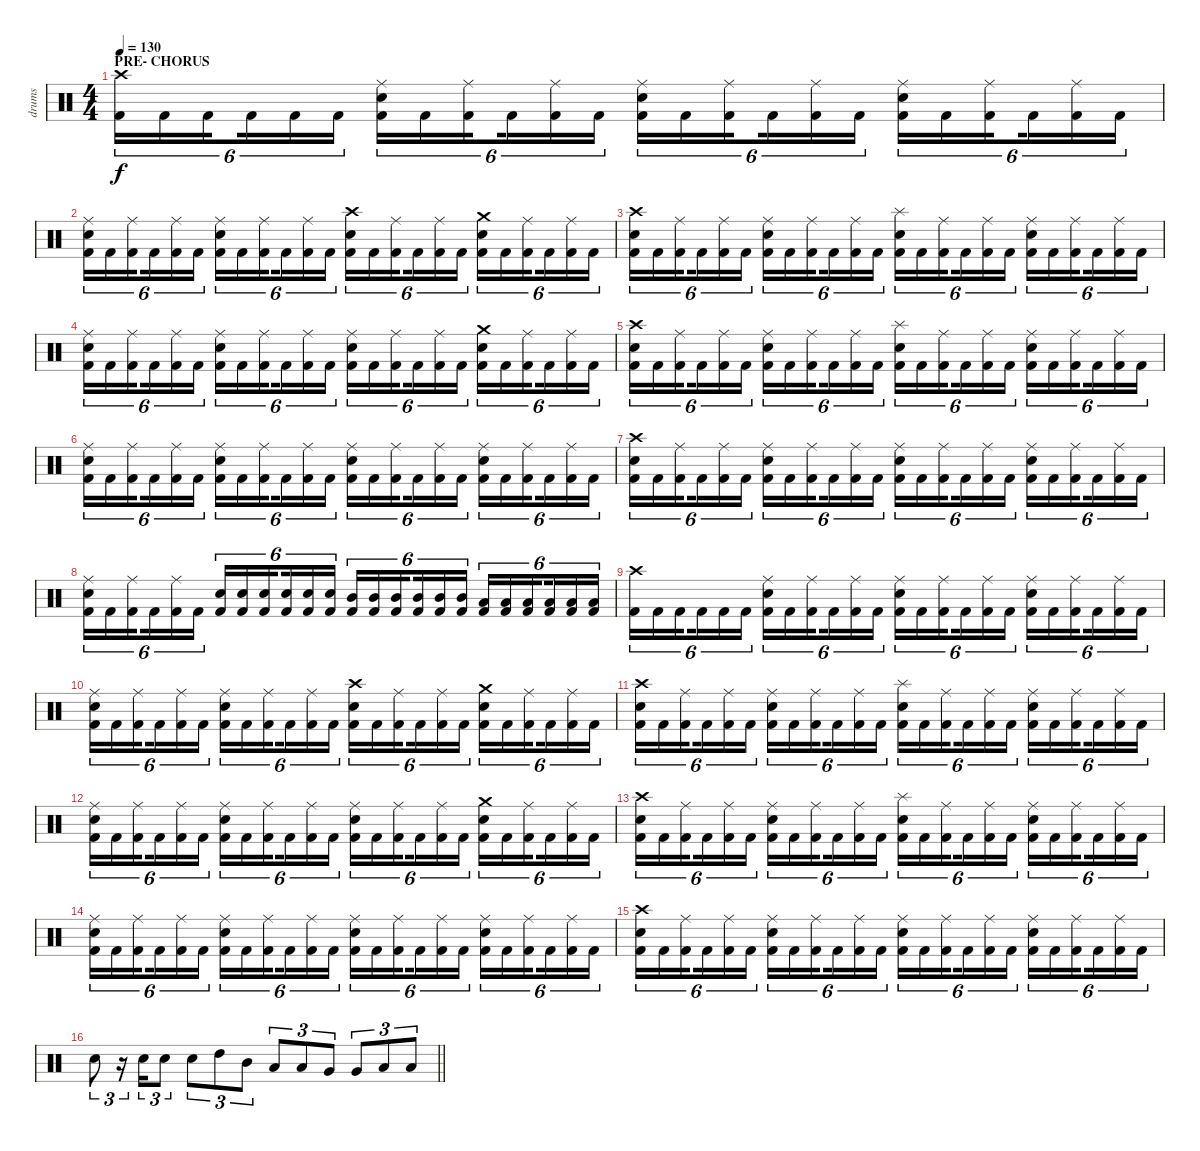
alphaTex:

\track ("drums" "drums") {instrument percussion}
\staff {score}
\articulation defaults
\ts (4 4)
\section ("" "PRE- CHORUS")
\tempo 130
\clef neutral
\ks c
("Crash high (hit)" "Kick (hit) 2").16{tu (6 4) dy f} "Kick (hit) 2".16{tu (6 4)} "Kick (hit) 2".16{tu (6 4) beam splitsecondary} "Kick (hit) 2".16{tu (6 4)} "Kick (hit) 2".16{tu (6 4)} "Kick (hit) 2".16{tu (6 4)} ("Ride (middle)" "Electric Snare (hit)" "Kick (hit) 2").16{tu (6 4)} "Kick (hit) 2".16{tu (6 4)} ("Ride (middle)" "Kick (hit) 2").16{tu (6 4) beam splitsecondary} "Kick (hit) 2".16{tu (6 4)} ("Ride (middle)" "Kick (hit) 2").16{tu (6 4)} "Kick (hit) 2".16{tu (6 4)} ("Ride (middle)" "Electric Snare (hit)" "Kick (hit) 2").16{tu (6 4)} "Kick (hit) 2".16{tu (6 4)} ("Ride (middle)" "Kick (hit) 2").16{tu (6 4) beam splitsecondary} "Kick (hit) 2".16{tu (6 4)} ("Ride (middle)" "Kick (hit) 2").16{tu (6 4)} "Kick (hit) 2".16{tu (6 4)} ("Ride (middle)" "Electric Snare (hit)" "Kick (hit) 2").16{tu (6 4)} "Kick (hit) 2".16{tu (6 4)} ("Ride (middle)" "Kick (hit) 2").16{tu (6 4) beam splitsecondary} "Kick (hit) 2".16{tu (6 4)} ("Ride (middle)" "Kick (hit) 2").16{tu (6 4)} "Kick (hit) 2".16{tu (6 4)} |
("Ride (middle)" "Electric Snare (hit)" "Kick (hit) 2").16{tu (6 4)} "Kick (hit) 2".16{tu (6 4)} ("Ride (middle)" "Kick (hit) 2").16{tu (6 4) beam splitsecondary} "Kick (hit) 2".16{tu (6 4)} ("Ride (middle)" "Kick (hit) 2").16{tu (6 4)} "Kick (hit) 2".16{tu (6 4)} ("Ride (middle)" "Electric Snare (hit)" "Kick (hit) 2").16{tu (6 4)} "Kick (hit) 2".16{tu (6 4)} ("Ride (middle)" "Kick (hit) 2").16{tu (6 4) beam splitsecondary} "Kick (hit) 2".16{tu (6 4)} ("Ride (middle)" "Kick (hit) 2").16{tu (6 4)} "Kick (hit) 2".16{tu (6 4)} ("Crash high (hit)" "Electric Snare (hit)" "Kick (hit) 2").16{tu (6 4)} "Kick (hit) 2".16{tu (6 4)} ("Ride (middle)" "Kick (hit) 2").16{tu (6 4) beam splitsecondary} "Kick (hit) 2".16{tu (6 4)} ("Ride (middle)" "Kick (hit) 2").16{tu (6 4)} "Kick (hit) 2".16{tu (6 4)} ("Crash medium (hit)" "Electric Snare (hit)" "Kick (hit) 2").16{tu (6 4)} "Kick (hit) 2".16{tu (6 4)} ("Ride (middle)" "Kick (hit) 2").16{tu (6 4) beam splitsecondary} "Kick (hit) 2".16{tu (6 4)} ("Ride (middle)" "Kick (hit) 2").16{tu (6 4)} "Kick (hit) 2".16{tu (6 4)} |
("Crash high (hit)" "Electric Snare (hit)" "Kick (hit) 2").16{tu (6 4)} "Kick (hit) 2".16{tu (6 4)} ("Ride (middle)" "Kick (hit) 2").16{tu (6 4) beam splitsecondary} "Kick (hit) 2".16{tu (6 4)} ("Ride (middle)" "Kick (hit) 2").16{tu (6 4)} "Kick (hit) 2".16{tu (6 4)} ("Ride (middle)" "Electric Snare (hit)" "Kick (hit) 2").16{tu (6 4)} "Kick (hit) 2".16{tu (6 4)} ("Ride (middle)" "Kick (hit) 2").16{tu (6 4) beam splitsecondary} "Kick (hit) 2".16{tu (6 4)} ("Ride (middle)" "Kick (hit) 2").16{tu (6 4)} "Kick (hit) 2".16{tu (6 4)} ("Splash (hit)" "Electric Snare (hit)" "Kick (hit) 2").16{tu (6 4)} "Kick (hit) 2".16{tu (6 4)} ("Ride (middle)" "Kick (hit) 2").16{tu (6 4) beam splitsecondary} "Kick (hit) 2".16{tu (6 4)} ("Ride (middle)" "Kick (hit) 2").16{tu (6 4)} "Kick (hit) 2".16{tu (6 4)} ("Ride (middle)" "Electric Snare (hit)" "Kick (hit) 2").16{tu (6 4)} "Kick (hit) 2".16{tu (6 4)} ("Ride (middle)" "Kick (hit) 2").16{tu (6 4) beam splitsecondary} "Kick (hit) 2".16{tu (6 4)} ("Ride (middle)" "Kick (hit) 2").16{tu (6 4)} "Kick (hit) 2".16{tu (6 4)} |
("Ride (middle)" "Electric Snare (hit)" "Kick (hit) 2").16{tu (6 4)} "Kick (hit) 2".16{tu (6 4)} ("Ride (middle)" "Kick (hit) 2").16{tu (6 4) beam splitsecondary} "Kick (hit) 2".16{tu (6 4)} ("Ride (middle)" "Kick (hit) 2").16{tu (6 4)} "Kick (hit) 2".16{tu (6 4)} ("Ride (middle)" "Electric Snare (hit)" "Kick (hit) 2").16{tu (6 4)} "Kick (hit) 2".16{tu (6 4)} ("Ride (middle)" "Kick (hit) 2").16{tu (6 4) beam splitsecondary} "Kick (hit) 2".16{tu (6 4)} ("Ride (middle)" "Kick (hit) 2").16{tu (6 4)} "Kick (hit) 2".16{tu (6 4)} ("Ride (middle)" "Electric Snare (hit)" "Kick (hit) 2").16{tu (6 4)} "Kick (hit) 2".16{tu (6 4)} ("Ride (middle)" "Kick (hit) 2").16{tu (6 4) beam splitsecondary} "Kick (hit) 2".16{tu (6 4)} ("Ride (middle)" "Kick (hit) 2").16{tu (6 4)} "Kick (hit) 2".16{tu (6 4)} ("Crash medium (hit)" "Electric Snare (hit)" "Kick (hit) 2").16{tu (6 4)} "Kick (hit) 2".16{tu (6 4)} ("Ride (middle)" "Kick (hit) 2").16{tu (6 4) beam splitsecondary} "Kick (hit) 2".16{tu (6 4)} ("Ride (middle)" "Kick (hit) 2").16{tu (6 4)} "Kick (hit) 2".16{tu (6 4)} |
("Crash high (hit)" "Electric Snare (hit)" "Kick (hit) 2").16{tu (6 4)} "Kick (hit) 2".16{tu (6 4)} ("Ride (middle)" "Kick (hit) 2").16{tu (6 4) beam splitsecondary} "Kick (hit) 2".16{tu (6 4)} ("Ride (middle)" "Kick (hit) 2").16{tu (6 4)} "Kick (hit) 2".16{tu (6 4)} ("Ride (middle)" "Electric Snare (hit)" "Kick (hit) 2").16{tu (6 4)} "Kick (hit) 2".16{tu (6 4)} ("Ride (middle)" "Kick (hit) 2").16{tu (6 4) beam splitsecondary} "Kick (hit) 2".16{tu (6 4)} ("Ride (middle)" "Kick (hit) 2").16{tu (6 4)} "Kick (hit) 2".16{tu (6 4)} ("Splash (hit)" "Electric Snare (hit)" "Kick (hit) 2").16{tu (6 4)} "Kick (hit) 2".16{tu (6 4)} ("Ride (middle)" "Kick (hit) 2").16{tu (6 4) beam splitsecondary} "Kick (hit) 2".16{tu (6 4)} ("Ride (middle)" "Kick (hit) 2").16{tu (6 4)} "Kick (hit) 2".16{tu (6 4)} ("Ride (middle)" "Electric Snare (hit)" "Kick (hit) 2").16{tu (6 4)} "Kick (hit) 2".16{tu (6 4)} ("Ride (middle)" "Kick (hit) 2").16{tu (6 4) beam splitsecondary} "Kick (hit) 2".16{tu (6 4)} ("Ride (middle)" "Kick (hit) 2").16{tu (6 4)} "Kick (hit) 2".16{tu (6 4)} |
("Ride (middle)" "Electric Snare (hit)" "Kick (hit) 2").16{tu (6 4)} "Kick (hit) 2".16{tu (6 4)} ("Ride (middle)" "Kick (hit) 2").16{tu (6 4) beam splitsecondary} "Kick (hit) 2".16{tu (6 4)} ("Ride (middle)" "Kick (hit) 2").16{tu (6 4)} "Kick (hit) 2".16{tu (6 4)} ("Ride (middle)" "Electric Snare (hit)" "Kick (hit) 2").16{tu (6 4)} "Kick (hit) 2".16{tu (6 4)} ("Ride (middle)" "Kick (hit) 2").16{tu (6 4) beam splitsecondary} "Kick (hit) 2".16{tu (6 4)} ("Ride (middle)" "Kick (hit) 2").16{tu (6 4)} "Kick (hit) 2".16{tu (6 4)} ("Ride (middle)" "Electric Snare (hit)" "Kick (hit) 2").16{tu (6 4)} "Kick (hit) 2".16{tu (6 4)} ("Ride (middle)" "Kick (hit) 2").16{tu (6 4) beam splitsecondary} "Kick (hit) 2".16{tu (6 4)} ("Ride (middle)" "Kick (hit) 2").16{tu (6 4)} "Kick (hit) 2".16{tu (6 4)} ("Ride (middle)" "Electric Snare (hit)" "Kick (hit) 2").16{tu (6 4)} "Kick (hit) 2".16{tu (6 4)} ("Ride (middle)" "Kick (hit) 2").16{tu (6 4) beam splitsecondary} "Kick (hit) 2".16{tu (6 4)} ("Ride (middle)" "Kick (hit) 2").16{tu (6 4)} "Kick (hit) 2".16{tu (6 4)} |
("Crash high (hit)" "Electric Snare (hit)" "Kick (hit) 2").16{tu (6 4)} "Kick (hit) 2".16{tu (6 4)} ("Ride (middle)" "Kick (hit) 2").16{tu (6 4) beam splitsecondary} "Kick (hit) 2".16{tu (6 4)} ("Ride (middle)" "Kick (hit) 2").16{tu (6 4)} "Kick (hit) 2".16{tu (6 4)} ("Ride (middle)" "Electric Snare (hit)" "Kick (hit) 2").16{tu (6 4)} "Kick (hit) 2".16{tu (6 4)} ("Ride (middle)" "Kick (hit) 2").16{tu (6 4) beam splitsecondary} "Kick (hit) 2".16{tu (6 4)} ("Ride (middle)" "Kick (hit) 2").16{tu (6 4)} "Kick (hit) 2".16{tu (6 4)} ("Ride (middle)" "Electric Snare (hit)" "Kick (hit) 2").16{tu (6 4)} "Kick (hit) 2".16{tu (6 4)} ("Ride (middle)" "Kick (hit) 2").16{tu (6 4) beam splitsecondary} "Kick (hit) 2".16{tu (6 4)} ("Ride (middle)" "Kick (hit) 2").16{tu (6 4)} "Kick (hit) 2".16{tu (6 4)} ("Ride (middle)" "Electric Snare (hit)" "Kick (hit) 2").16{tu (6 4)} "Kick (hit) 2".16{tu (6 4)} ("Ride (middle)" "Kick (hit) 2").16{tu (6 4) beam splitsecondary} "Kick (hit) 2".16{tu (6 4)} ("Ride (middle)" "Kick (hit) 2").16{tu (6 4)} "Kick (hit) 2".16{tu (6 4)} |
("Ride (middle)" "Electric Snare (hit)" "Kick (hit) 2").16{tu (6 4)} "Kick (hit) 2".16{tu (6 4)} ("Ride (middle)" "Kick (hit) 2").16{tu (6 4) beam splitsecondary} "Kick (hit) 2".16{tu (6 4)} ("Ride (middle)" "Kick (hit) 2").16{tu (6 4)} "Kick (hit) 2".16{tu (6 4)} ("Electric Snare (hit)" "Kick (hit) 2").16{tu (6 4)} ("Electric Snare (hit)" "Kick (hit) 2").16{tu (6 4)} ("Electric Snare (hit)" "Kick (hit) 2").16{tu (6 4) beam splitsecondary} ("Electric Snare (hit)" "Kick (hit) 2").16{tu (6 4)} ("Electric Snare (hit)" "Kick (hit) 2").16{tu (6 4)} ("Electric Snare (hit)" "Kick (hit) 2").16{tu (6 4)} ("Mid Tom (hit)" "Kick (hit) 2").16{tu (6 4)} ("Mid Tom (hit)" "Kick (hit) 2").16{tu (6 4)} ("Mid Tom (hit)" "Kick (hit) 2").16{tu (6 4) beam splitsecondary} ("Mid Tom (hit)" "Kick (hit) 2").16{tu (6 4)} ("Mid Tom (hit)" "Kick (hit) 2").16{tu (6 4)} ("Mid Tom (hit)" "Kick (hit) 2").16{tu (6 4)} ("Low Tom (hit)" "Kick (hit) 2").16{tu (6 4)} ("Low Tom (hit)" "Kick (hit) 2").16{tu (6 4)} ("Low Tom (hit)" "Kick (hit) 2").16{tu (6 4) beam splitsecondary} ("Low Tom (hit)" "Kick (hit) 2").16{tu (6 4)} ("Low Tom (hit)" "Kick (hit) 2").16{tu (6 4)} ("Low Tom (hit)" "Kick (hit) 2").16{tu (6 4)} |
("Crash high (hit)" "Kick (hit) 2").16{tu (6 4)} "Kick (hit) 2".16{tu (6 4)} "Kick (hit) 2".16{tu (6 4) beam splitsecondary} "Kick (hit) 2".16{tu (6 4)} "Kick (hit) 2".16{tu (6 4)} "Kick (hit) 2".16{tu (6 4)} ("Ride (middle)" "Electric Snare (hit)" "Kick (hit) 2").16{tu (6 4)} "Kick (hit) 2".16{tu (6 4)} ("Ride (middle)" "Kick (hit) 2").16{tu (6 4) beam splitsecondary} "Kick (hit) 2".16{tu (6 4)} ("Ride (middle)" "Kick (hit) 2").16{tu (6 4)} "Kick (hit) 2".16{tu (6 4)} ("Ride (middle)" "Electric Snare (hit)" "Kick (hit) 2").16{tu (6 4)} "Kick (hit) 2".16{tu (6 4)} ("Ride (middle)" "Kick (hit) 2").16{tu (6 4) beam splitsecondary} "Kick (hit) 2".16{tu (6 4)} ("Ride (middle)" "Kick (hit) 2").16{tu (6 4)} "Kick (hit) 2".16{tu (6 4)} ("Ride (middle)" "Electric Snare (hit)" "Kick (hit) 2").16{tu (6 4)} "Kick (hit) 2".16{tu (6 4)} ("Ride (middle)" "Kick (hit) 2").16{tu (6 4) beam splitsecondary} "Kick (hit) 2".16{tu (6 4)} ("Ride (middle)" "Kick (hit) 2").16{tu (6 4)} "Kick (hit) 2".16{tu (6 4)} |
("Ride (middle)" "Electric Snare (hit)" "Kick (hit) 2").16{tu (6 4)} "Kick (hit) 2".16{tu (6 4)} ("Ride (middle)" "Kick (hit) 2").16{tu (6 4) beam splitsecondary} "Kick (hit) 2".16{tu (6 4)} ("Ride (middle)" "Kick (hit) 2").16{tu (6 4)} "Kick (hit) 2".16{tu (6 4)} ("Ride (middle)" "Electric Snare (hit)" "Kick (hit) 2").16{tu (6 4)} "Kick (hit) 2".16{tu (6 4)} ("Ride (middle)" "Kick (hit) 2").16{tu (6 4) beam splitsecondary} "Kick (hit) 2".16{tu (6 4)} ("Ride (middle)" "Kick (hit) 2").16{tu (6 4)} "Kick (hit) 2".16{tu (6 4)} ("Crash high (hit)" "Electric Snare (hit)" "Kick (hit) 2").16{tu (6 4)} "Kick (hit) 2".16{tu (6 4)} ("Ride (middle)" "Kick (hit) 2").16{tu (6 4) beam splitsecondary} "Kick (hit) 2".16{tu (6 4)} ("Ride (middle)" "Kick (hit) 2").16{tu (6 4)} "Kick (hit) 2".16{tu (6 4)} ("Crash medium (hit)" "Electric Snare (hit)" "Kick (hit) 2").16{tu (6 4)} "Kick (hit) 2".16{tu (6 4)} ("Ride (middle)" "Kick (hit) 2").16{tu (6 4) beam splitsecondary} "Kick (hit) 2".16{tu (6 4)} ("Ride (middle)" "Kick (hit) 2").16{tu (6 4)} "Kick (hit) 2".16{tu (6 4)} |
("Crash high (hit)" "Electric Snare (hit)" "Kick (hit) 2").16{tu (6 4)} "Kick (hit) 2".16{tu (6 4)} ("Ride (middle)" "Kick (hit) 2").16{tu (6 4) beam splitsecondary} "Kick (hit) 2".16{tu (6 4)} ("Ride (middle)" "Kick (hit) 2").16{tu (6 4)} "Kick (hit) 2".16{tu (6 4)} ("Ride (middle)" "Electric Snare (hit)" "Kick (hit) 2").16{tu (6 4)} "Kick (hit) 2".16{tu (6 4)} ("Ride (middle)" "Kick (hit) 2").16{tu (6 4) beam splitsecondary} "Kick (hit) 2".16{tu (6 4)} ("Ride (middle)" "Kick (hit) 2").16{tu (6 4)} "Kick (hit) 2".16{tu (6 4)} ("Splash (hit)" "Electric Snare (hit)" "Kick (hit) 2").16{tu (6 4)} "Kick (hit) 2".16{tu (6 4)} ("Ride (middle)" "Kick (hit) 2").16{tu (6 4) beam splitsecondary} "Kick (hit) 2".16{tu (6 4)} ("Ride (middle)" "Kick (hit) 2").16{tu (6 4)} "Kick (hit) 2".16{tu (6 4)} ("Ride (middle)" "Electric Snare (hit)" "Kick (hit) 2").16{tu (6 4)} "Kick (hit) 2".16{tu (6 4)} ("Ride (middle)" "Kick (hit) 2").16{tu (6 4) beam splitsecondary} "Kick (hit) 2".16{tu (6 4)} ("Ride (middle)" "Kick (hit) 2").16{tu (6 4)} "Kick (hit) 2".16{tu (6 4)} |
("Ride (middle)" "Electric Snare (hit)" "Kick (hit) 2").16{tu (6 4)} "Kick (hit) 2".16{tu (6 4)} ("Ride (middle)" "Kick (hit) 2").16{tu (6 4) beam splitsecondary} "Kick (hit) 2".16{tu (6 4)} ("Ride (middle)" "Kick (hit) 2").16{tu (6 4)} "Kick (hit) 2".16{tu (6 4)} ("Ride (middle)" "Electric Snare (hit)" "Kick (hit) 2").16{tu (6 4)} "Kick (hit) 2".16{tu (6 4)} ("Ride (middle)" "Kick (hit) 2").16{tu (6 4) beam splitsecondary} "Kick (hit) 2".16{tu (6 4)} ("Ride (middle)" "Kick (hit) 2").16{tu (6 4)} "Kick (hit) 2".16{tu (6 4)} ("Ride (middle)" "Electric Snare (hit)" "Kick (hit) 2").16{tu (6 4)} "Kick (hit) 2".16{tu (6 4)} ("Ride (middle)" "Kick (hit) 2").16{tu (6 4) beam splitsecondary} "Kick (hit) 2".16{tu (6 4)} ("Ride (middle)" "Kick (hit) 2").16{tu (6 4)} "Kick (hit) 2".16{tu (6 4)} ("Crash medium (hit)" "Electric Snare (hit)" "Kick (hit) 2").16{tu (6 4)} "Kick (hit) 2".16{tu (6 4)} ("Ride (middle)" "Kick (hit) 2").16{tu (6 4) beam splitsecondary} "Kick (hit) 2".16{tu (6 4)} ("Ride (middle)" "Kick (hit) 2").16{tu (6 4)} "Kick (hit) 2".16{tu (6 4)} |
("Crash high (hit)" "Electric Snare (hit)" "Kick (hit) 2").16{tu (6 4)} "Kick (hit) 2".16{tu (6 4)} ("Ride (middle)" "Kick (hit) 2").16{tu (6 4) beam splitsecondary} "Kick (hit) 2".16{tu (6 4)} ("Ride (middle)" "Kick (hit) 2").16{tu (6 4)} "Kick (hit) 2".16{tu (6 4)} ("Ride (middle)" "Electric Snare (hit)" "Kick (hit) 2").16{tu (6 4)} "Kick (hit) 2".16{tu (6 4)} ("Ride (middle)" "Kick (hit) 2").16{tu (6 4) beam splitsecondary} "Kick (hit) 2".16{tu (6 4)} ("Ride (middle)" "Kick (hit) 2").16{tu (6 4)} "Kick (hit) 2".16{tu (6 4)} ("Splash (hit)" "Electric Snare (hit)" "Kick (hit) 2").16{tu (6 4)} "Kick (hit) 2".16{tu (6 4)} ("Ride (middle)" "Kick (hit) 2").16{tu (6 4) beam splitsecondary} "Kick (hit) 2".16{tu (6 4)} ("Ride (middle)" "Kick (hit) 2").16{tu (6 4)} "Kick (hit) 2".16{tu (6 4)} ("Ride (middle)" "Electric Snare (hit)" "Kick (hit) 2").16{tu (6 4)} "Kick (hit) 2".16{tu (6 4)} ("Ride (middle)" "Kick (hit) 2").16{tu (6 4) beam splitsecondary} "Kick (hit) 2".16{tu (6 4)} ("Ride (middle)" "Kick (hit) 2").16{tu (6 4)} "Kick (hit) 2".16{tu (6 4)} |
("Ride (middle)" "Electric Snare (hit)" "Kick (hit) 2").16{tu (6 4)} "Kick (hit) 2".16{tu (6 4)} ("Ride (middle)" "Kick (hit) 2").16{tu (6 4) beam splitsecondary} "Kick (hit) 2".16{tu (6 4)} ("Ride (middle)" "Kick (hit) 2").16{tu (6 4)} "Kick (hit) 2".16{tu (6 4)} ("Ride (middle)" "Electric Snare (hit)" "Kick (hit) 2").16{tu (6 4)} "Kick (hit) 2".16{tu (6 4)} ("Ride (middle)" "Kick (hit) 2").16{tu (6 4) beam splitsecondary} "Kick (hit) 2".16{tu (6 4)} ("Ride (middle)" "Kick (hit) 2").16{tu (6 4)} "Kick (hit) 2".16{tu (6 4)} ("Ride (middle)" "Electric Snare (hit)" "Kick (hit) 2").16{tu (6 4)} "Kick (hit) 2".16{tu (6 4)} ("Ride (middle)" "Kick (hit) 2").16{tu (6 4) beam splitsecondary} "Kick (hit) 2".16{tu (6 4)} ("Ride (middle)" "Kick (hit) 2").16{tu (6 4)} "Kick (hit) 2".16{tu (6 4)} ("Ride (middle)" "Electric Snare (hit)" "Kick (hit) 2").16{tu (6 4)} "Kick (hit) 2".16{tu (6 4)} ("Ride (middle)" "Kick (hit) 2").16{tu (6 4) beam splitsecondary} "Kick (hit) 2".16{tu (6 4)} ("Ride (middle)" "Kick (hit) 2").16{tu (6 4)} "Kick (hit) 2".16{tu (6 4)} |
("Crash high (hit)" "Electric Snare (hit)" "Kick (hit) 2").16{tu (6 4)} "Kick (hit) 2".16{tu (6 4)} ("Ride (middle)" "Kick (hit) 2").16{tu (6 4) beam splitsecondary} "Kick (hit) 2".16{tu (6 4)} ("Ride (middle)" "Kick (hit) 2").16{tu (6 4)} "Kick (hit) 2".16{tu (6 4)} ("Ride (middle)" "Electric Snare (hit)" "Kick (hit) 2").16{tu (6 4)} "Kick (hit) 2".16{tu (6 4)} ("Ride (middle)" "Kick (hit) 2").16{tu (6 4) beam splitsecondary} "Kick (hit) 2".16{tu (6 4)} ("Ride (middle)" "Kick (hit) 2").16{tu (6 4)} "Kick (hit) 2".16{tu (6 4)} ("Ride (middle)" "Electric Snare (hit)" "Kick (hit) 2").16{tu (6 4)} "Kick (hit) 2".16{tu (6 4)} ("Ride (middle)" "Kick (hit) 2").16{tu (6 4) beam splitsecondary} "Kick (hit) 2".16{tu (6 4)} ("Ride (middle)" "Kick (hit) 2").16{tu (6 4)} "Kick (hit) 2".16{tu (6 4)} ("Ride (middle)" "Electric Snare (hit)" "Kick (hit) 2").16{tu (6 4)} "Kick (hit) 2".16{tu (6 4)} ("Ride (middle)" "Kick (hit) 2").16{tu (6 4) beam splitsecondary} "Kick (hit) 2".16{tu (6 4)} ("Ride (middle)" "Kick (hit) 2").16{tu (6 4)} "Kick (hit) 2".16{tu (6 4)} |
\barLineRight lightlight "Electric Snare (hit)".8{tu (3 2)}
r.16{tu (3 2)} "Electric Snare (hit)".16{tu (3 2)} "Electric Snare (hit)".8{tu (3 2)} "Electric Snare (hit)".8{tu (3 2)} "High Tom (hit)".8{tu (3 2)} "Mid Tom (hit)".8{tu (3 2)} "Low Tom (hit)".8{tu (3 2)} "Low Tom (hit)".8{tu (3 2)} "Very Low Tom (hit)".8{tu (3 2)} "Very Low Tom (hit)".8{tu (3 2)} "Low Floor Tom (hit)".8{tu (3 2)} "Low Floor Tom (hit)".8{tu (3 2)}
